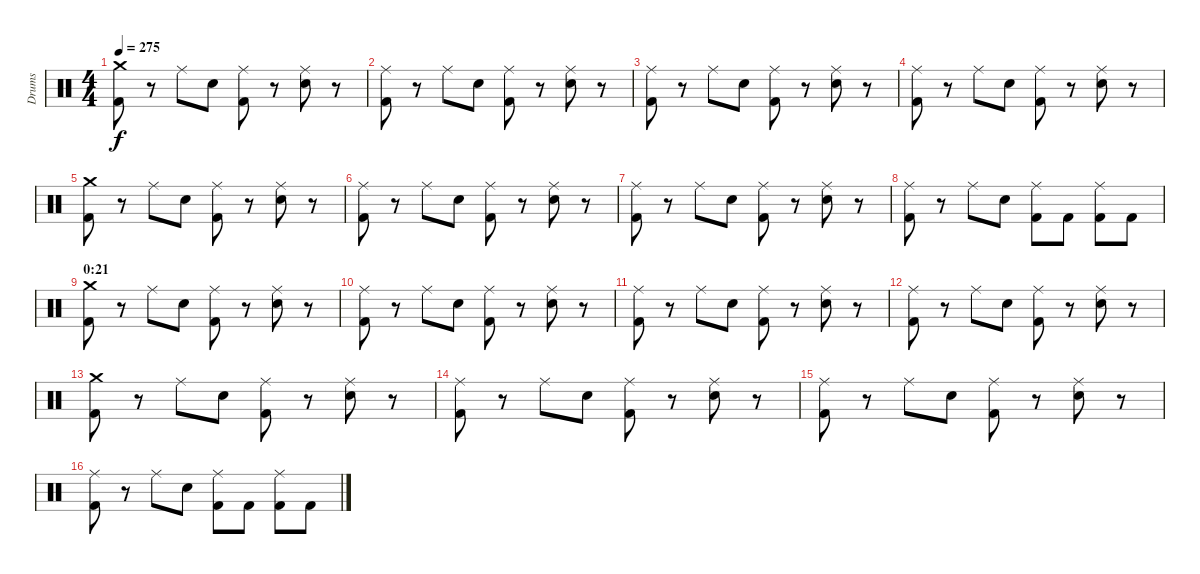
\track ("Drums" "Drums") {instrument percussion}
\staff {score}
\articulation defaults
\ts (4 4)
\tempo 275
\clef neutral
\ks c
("Crash medium (hit)" "Kick (hit) 2").8{dy f} r.8 "Ride (middle)".8 "Electric Snare (hit)".8 ("Ride (middle)" "Kick (hit) 2").8 r.8 ("Ride (middle)" "Electric Snare (hit)").8 r.8 |
("Ride (middle)" "Kick (hit) 2").8 r.8 "Ride (middle)".8 "Electric Snare (hit)".8 ("Ride (middle)" "Kick (hit) 2").8 r.8 ("Ride (middle)" "Electric Snare (hit)").8 r.8 |
("Ride (middle)" "Kick (hit) 2").8 r.8 "Ride (middle)".8 "Electric Snare (hit)".8 ("Ride (middle)" "Kick (hit) 2").8 r.8 ("Ride (middle)" "Electric Snare (hit)").8 r.8 |
("Ride (middle)" "Kick (hit) 2").8 r.8 "Ride (middle)".8 "Electric Snare (hit)".8 ("Ride (middle)" "Kick (hit) 2").8 r.8 ("Ride (middle)" "Electric Snare (hit)").8 r.8 |
("Crash medium (hit)" "Kick (hit) 2").8 r.8 "Ride (middle)".8 "Electric Snare (hit)".8 ("Ride (middle)" "Kick (hit) 2").8 r.8 ("Ride (middle)" "Electric Snare (hit)").8 r.8 |
("Ride (middle)" "Kick (hit) 2").8 r.8 "Ride (middle)".8 "Electric Snare (hit)".8 ("Ride (middle)" "Kick (hit) 2").8 r.8 ("Ride (middle)" "Electric Snare (hit)").8 r.8 |
("Ride (middle)" "Kick (hit) 2").8 r.8 "Ride (middle)".8 "Electric Snare (hit)".8 ("Ride (middle)" "Kick (hit) 2").8 r.8 ("Ride (middle)" "Electric Snare (hit)").8 r.8 |
("Ride (middle)" "Kick (hit) 2").8 r.8 "Ride (middle)".8 "Electric Snare (hit)".8 ("Ride (middle)" "Kick (hit) 2").8 "Kick (hit) 2".8 ("Ride (middle)" "Kick (hit) 2").8 "Kick (hit) 2".8 |
\section ("" "0:21")
("Crash medium (hit)" "Kick (hit) 2").8 r.8 "Ride (middle)".8 "Electric Snare (hit)".8 ("Ride (middle)" "Kick (hit) 2").8 r.8 ("Ride (middle)" "Electric Snare (hit)").8 r.8 |
("Ride (middle)" "Kick (hit) 2").8 r.8 "Ride (middle)".8 "Electric Snare (hit)".8 ("Ride (middle)" "Kick (hit) 2").8 r.8 ("Ride (middle)" "Electric Snare (hit)").8 r.8 |
("Ride (middle)" "Kick (hit) 2").8 r.8 "Ride (middle)".8 "Electric Snare (hit)".8 ("Ride (middle)" "Kick (hit) 2").8 r.8 ("Ride (middle)" "Electric Snare (hit)").8 r.8 |
("Ride (middle)" "Kick (hit) 2").8 r.8 "Ride (middle)".8 "Electric Snare (hit)".8 ("Ride (middle)" "Kick (hit) 2").8 r.8 ("Ride (middle)" "Electric Snare (hit)").8 r.8 |
("Crash medium (hit)" "Kick (hit) 2").8 r.8 "Ride (middle)".8 "Electric Snare (hit)".8 ("Ride (middle)" "Kick (hit) 2").8 r.8 ("Ride (middle)" "Electric Snare (hit)").8 r.8 |
("Ride (middle)" "Kick (hit) 2").8 r.8 "Ride (middle)".8 "Electric Snare (hit)".8 ("Ride (middle)" "Kick (hit) 2").8 r.8 ("Ride (middle)" "Electric Snare (hit)").8 r.8 |
("Ride (middle)" "Kick (hit) 2").8 r.8 "Ride (middle)".8 "Electric Snare (hit)".8 ("Ride (middle)" "Kick (hit) 2").8 r.8 ("Ride (middle)" "Electric Snare (hit)").8 r.8 |
("Ride (middle)" "Kick (hit) 2").8 r.8 "Ride (middle)".8 "Electric Snare (hit)".8 ("Ride (middle)" "Kick (hit) 2").8 "Kick (hit) 2".8 ("Ride (middle)" "Kick (hit) 2").8 "Kick (hit) 2".8
